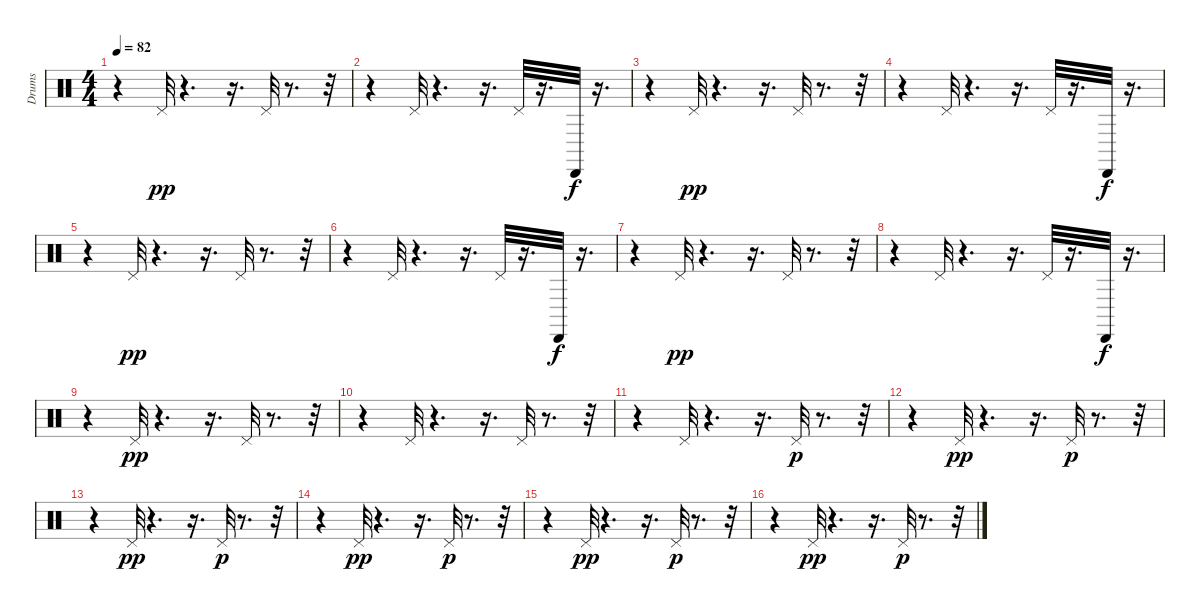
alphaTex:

\track ("Drums" "Drums") {instrument percussion}
\staff {score}
\articulation defaults
\ts (4 4)
\tempo 82
\clef neutral
\ks c
r.4{dy pp} "Pedal Hi-Hat (hit)".32 r.4{d} r.16{d} "Pedal Hi-Hat (hit)".32 r.8{d} r.32 |
r.4 "Pedal Hi-Hat (hit)".32 r.4{d} r.16{d} "Pedal Hi-Hat (hit)".32 r.16{d} "Cabasa (hit)".32{dy f} r.16{d} |
r.4 "Pedal Hi-Hat (hit)".32{dy pp} r.4{d} r.16{d} "Pedal Hi-Hat (hit)".32 r.8{d} r.32 |
r.4 "Pedal Hi-Hat (hit)".32 r.4{d} r.16{d} "Pedal Hi-Hat (hit)".32 r.16{d} "Cabasa (hit)".32{dy f} r.16{d} |
r.4 "Pedal Hi-Hat (hit)".32{dy pp} r.4{d} r.16{d} "Pedal Hi-Hat (hit)".32 r.8{d} r.32 |
r.4 "Pedal Hi-Hat (hit)".32 r.4{d} r.16{d} "Pedal Hi-Hat (hit)".32 r.16{d} "Cabasa (hit)".32{dy f} r.16{d} |
r.4 "Pedal Hi-Hat (hit)".32{dy pp} r.4{d} r.16{d} "Pedal Hi-Hat (hit)".32 r.8{d} r.32 |
r.4 "Pedal Hi-Hat (hit)".32 r.4{d} r.16{d} "Pedal Hi-Hat (hit)".32 r.16{d} "Cabasa (hit)".32{dy f} r.16{d} |
r.4 "Pedal Hi-Hat (hit)".32{dy pp} r.4{d} r.16{d} "Pedal Hi-Hat (hit)".32 r.8{d} r.32 |
r.4 "Pedal Hi-Hat (hit)".32 r.4{d} r.16{d} "Pedal Hi-Hat (hit)".32 r.8{d} r.32 |
r.4 "Pedal Hi-Hat (hit)".32 r.4{d} r.16{d} "Pedal Hi-Hat (hit)".32{dy p} r.8{d} r.32 |
r.4 "Pedal Hi-Hat (hit)".32{dy pp} r.4{d} r.16{d} "Pedal Hi-Hat (hit)".32{dy p} r.8{d} r.32 |
r.4 "Pedal Hi-Hat (hit)".32{dy pp} r.4{d} r.16{d} "Pedal Hi-Hat (hit)".32{dy p} r.8{d} r.32 |
r.4 "Pedal Hi-Hat (hit)".32{dy pp} r.4{d} r.16{d} "Pedal Hi-Hat (hit)".32{dy p} r.8{d} r.32 |
r.4 "Pedal Hi-Hat (hit)".32{dy pp} r.4{d} r.16{d} "Pedal Hi-Hat (hit)".32{dy p} r.8{d} r.32 |
r.4 "Pedal Hi-Hat (hit)".32{dy pp} r.4{d} r.16{d} "Pedal Hi-Hat (hit)".32{dy p} r.8{d} r.32
